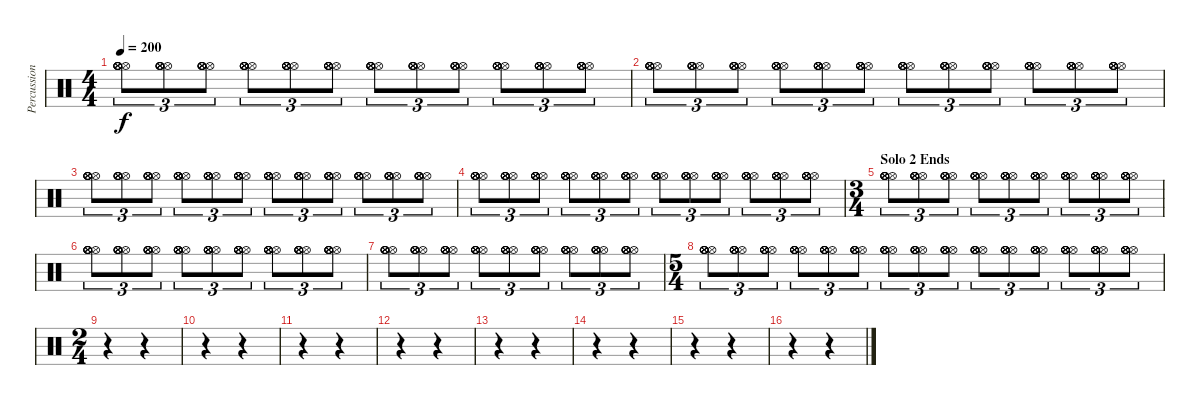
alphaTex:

\track ("Percussion" "Percussion") {instrument percussion}
\staff {score}
\articulation defaults
\ts (4 4)
\tempo 200
\clef neutral
\ks c
("Hi-Hat (open)" "Hi-Hat (open)" "Hi-Hat (open)" "Hi-Hat (open)" "Hi-Hat (open)" "Hi-Hat (open)").8{tu (3 2) dy f} ("Hi-Hat (open)" "Hi-Hat (open)" "Hi-Hat (open)" "Hi-Hat (open)" "Hi-Hat (open)" "Hi-Hat (open)").8{tu (3 2)} ("Hi-Hat (open)" "Hi-Hat (open)" "Hi-Hat (open)" "Hi-Hat (open)" "Hi-Hat (open)" "Hi-Hat (open)").8{tu (3 2)} ("Hi-Hat (open)" "Hi-Hat (open)" "Hi-Hat (open)" "Hi-Hat (open)" "Hi-Hat (open)" "Hi-Hat (open)").8{tu (3 2)} ("Hi-Hat (open)" "Hi-Hat (open)" "Hi-Hat (open)" "Hi-Hat (open)" "Hi-Hat (open)" "Hi-Hat (open)").8{tu (3 2)} ("Hi-Hat (open)" "Hi-Hat (open)" "Hi-Hat (open)" "Hi-Hat (open)" "Hi-Hat (open)" "Hi-Hat (open)").8{tu (3 2)} ("Hi-Hat (open)" "Hi-Hat (open)" "Hi-Hat (open)" "Hi-Hat (open)" "Hi-Hat (open)" "Hi-Hat (open)").8{tu (3 2)} ("Hi-Hat (open)" "Hi-Hat (open)" "Hi-Hat (open)" "Hi-Hat (open)" "Hi-Hat (open)" "Hi-Hat (open)").8{tu (3 2)} ("Hi-Hat (open)" "Hi-Hat (open)" "Hi-Hat (open)" "Hi-Hat (open)" "Hi-Hat (open)" "Hi-Hat (open)").8{tu (3 2)} ("Hi-Hat (open)" "Hi-Hat (open)" "Hi-Hat (open)" "Hi-Hat (open)" "Hi-Hat (open)" "Hi-Hat (open)").8{tu (3 2)} ("Hi-Hat (open)" "Hi-Hat (open)" "Hi-Hat (open)" "Hi-Hat (open)" "Hi-Hat (open)" "Hi-Hat (open)").8{tu (3 2)} ("Hi-Hat (open)" "Hi-Hat (open)" "Hi-Hat (open)" "Hi-Hat (open)" "Hi-Hat (open)" "Hi-Hat (open)").8{tu (3 2)} |
("Hi-Hat (open)" "Hi-Hat (open)" "Hi-Hat (open)" "Hi-Hat (open)" "Hi-Hat (open)" "Hi-Hat (open)").8{tu (3 2)} ("Hi-Hat (open)" "Hi-Hat (open)" "Hi-Hat (open)" "Hi-Hat (open)" "Hi-Hat (open)" "Hi-Hat (open)").8{tu (3 2)} ("Hi-Hat (open)" "Hi-Hat (open)" "Hi-Hat (open)" "Hi-Hat (open)" "Hi-Hat (open)" "Hi-Hat (open)").8{tu (3 2)} ("Hi-Hat (open)" "Hi-Hat (open)" "Hi-Hat (open)" "Hi-Hat (open)" "Hi-Hat (open)" "Hi-Hat (open)").8{tu (3 2)} ("Hi-Hat (open)" "Hi-Hat (open)" "Hi-Hat (open)" "Hi-Hat (open)" "Hi-Hat (open)" "Hi-Hat (open)").8{tu (3 2)} ("Hi-Hat (open)" "Hi-Hat (open)" "Hi-Hat (open)" "Hi-Hat (open)" "Hi-Hat (open)" "Hi-Hat (open)").8{tu (3 2)} ("Hi-Hat (open)" "Hi-Hat (open)" "Hi-Hat (open)" "Hi-Hat (open)" "Hi-Hat (open)" "Hi-Hat (open)").8{tu (3 2)} ("Hi-Hat (open)" "Hi-Hat (open)" "Hi-Hat (open)" "Hi-Hat (open)" "Hi-Hat (open)" "Hi-Hat (open)").8{tu (3 2)} ("Hi-Hat (open)" "Hi-Hat (open)" "Hi-Hat (open)" "Hi-Hat (open)" "Hi-Hat (open)" "Hi-Hat (open)").8{tu (3 2)} ("Hi-Hat (open)" "Hi-Hat (open)" "Hi-Hat (open)" "Hi-Hat (open)" "Hi-Hat (open)" "Hi-Hat (open)").8{tu (3 2)} ("Hi-Hat (open)" "Hi-Hat (open)" "Hi-Hat (open)" "Hi-Hat (open)" "Hi-Hat (open)" "Hi-Hat (open)").8{tu (3 2)} ("Hi-Hat (open)" "Hi-Hat (open)" "Hi-Hat (open)" "Hi-Hat (open)" "Hi-Hat (open)" "Hi-Hat (open)").8{tu (3 2)} |
("Hi-Hat (open)" "Hi-Hat (open)" "Hi-Hat (open)" "Hi-Hat (open)" "Hi-Hat (open)" "Hi-Hat (open)").8{tu (3 2)} ("Hi-Hat (open)" "Hi-Hat (open)" "Hi-Hat (open)" "Hi-Hat (open)" "Hi-Hat (open)" "Hi-Hat (open)").8{tu (3 2)} ("Hi-Hat (open)" "Hi-Hat (open)" "Hi-Hat (open)" "Hi-Hat (open)" "Hi-Hat (open)" "Hi-Hat (open)").8{tu (3 2)} ("Hi-Hat (open)" "Hi-Hat (open)" "Hi-Hat (open)" "Hi-Hat (open)" "Hi-Hat (open)" "Hi-Hat (open)").8{tu (3 2)} ("Hi-Hat (open)" "Hi-Hat (open)" "Hi-Hat (open)" "Hi-Hat (open)" "Hi-Hat (open)" "Hi-Hat (open)").8{tu (3 2)} ("Hi-Hat (open)" "Hi-Hat (open)" "Hi-Hat (open)" "Hi-Hat (open)" "Hi-Hat (open)" "Hi-Hat (open)").8{tu (3 2)} ("Hi-Hat (open)" "Hi-Hat (open)" "Hi-Hat (open)" "Hi-Hat (open)" "Hi-Hat (open)" "Hi-Hat (open)").8{tu (3 2)} ("Hi-Hat (open)" "Hi-Hat (open)" "Hi-Hat (open)" "Hi-Hat (open)" "Hi-Hat (open)" "Hi-Hat (open)").8{tu (3 2)} ("Hi-Hat (open)" "Hi-Hat (open)" "Hi-Hat (open)" "Hi-Hat (open)" "Hi-Hat (open)" "Hi-Hat (open)").8{tu (3 2)} ("Hi-Hat (open)" "Hi-Hat (open)" "Hi-Hat (open)" "Hi-Hat (open)" "Hi-Hat (open)" "Hi-Hat (open)").8{tu (3 2)} ("Hi-Hat (open)" "Hi-Hat (open)" "Hi-Hat (open)" "Hi-Hat (open)" "Hi-Hat (open)" "Hi-Hat (open)").8{tu (3 2)} ("Hi-Hat (open)" "Hi-Hat (open)" "Hi-Hat (open)" "Hi-Hat (open)" "Hi-Hat (open)" "Hi-Hat (open)").8{tu (3 2)} |
("Hi-Hat (open)" "Hi-Hat (open)" "Hi-Hat (open)" "Hi-Hat (open)" "Hi-Hat (open)" "Hi-Hat (open)").8{tu (3 2)} ("Hi-Hat (open)" "Hi-Hat (open)" "Hi-Hat (open)" "Hi-Hat (open)" "Hi-Hat (open)" "Hi-Hat (open)").8{tu (3 2)} ("Hi-Hat (open)" "Hi-Hat (open)" "Hi-Hat (open)" "Hi-Hat (open)" "Hi-Hat (open)" "Hi-Hat (open)").8{tu (3 2)} ("Hi-Hat (open)" "Hi-Hat (open)" "Hi-Hat (open)" "Hi-Hat (open)" "Hi-Hat (open)" "Hi-Hat (open)").8{tu (3 2)} ("Hi-Hat (open)" "Hi-Hat (open)" "Hi-Hat (open)" "Hi-Hat (open)" "Hi-Hat (open)" "Hi-Hat (open)").8{tu (3 2)} ("Hi-Hat (open)" "Hi-Hat (open)" "Hi-Hat (open)" "Hi-Hat (open)" "Hi-Hat (open)" "Hi-Hat (open)").8{tu (3 2)} ("Hi-Hat (open)" "Hi-Hat (open)" "Hi-Hat (open)" "Hi-Hat (open)" "Hi-Hat (open)" "Hi-Hat (open)").8{tu (3 2)} ("Hi-Hat (open)" "Hi-Hat (open)" "Hi-Hat (open)" "Hi-Hat (open)" "Hi-Hat (open)" "Hi-Hat (open)").8{tu (3 2)} ("Hi-Hat (open)" "Hi-Hat (open)" "Hi-Hat (open)" "Hi-Hat (open)" "Hi-Hat (open)" "Hi-Hat (open)").8{tu (3 2)} ("Hi-Hat (open)" "Hi-Hat (open)" "Hi-Hat (open)" "Hi-Hat (open)" "Hi-Hat (open)" "Hi-Hat (open)").8{tu (3 2)} ("Hi-Hat (open)" "Hi-Hat (open)" "Hi-Hat (open)" "Hi-Hat (open)" "Hi-Hat (open)" "Hi-Hat (open)").8{tu (3 2)} ("Hi-Hat (open)" "Hi-Hat (open)" "Hi-Hat (open)" "Hi-Hat (open)" "Hi-Hat (open)" "Hi-Hat (open)").8{tu (3 2)} |
\ts (3 4)
\section ("" "Solo 2 Ends")
("Hi-Hat (open)" "Hi-Hat (open)" "Hi-Hat (open)" "Hi-Hat (open)" "Hi-Hat (open)" "Hi-Hat (open)").8{tu (3 2) volume 14} ("Hi-Hat (open)" "Hi-Hat (open)" "Hi-Hat (open)" "Hi-Hat (open)" "Hi-Hat (open)" "Hi-Hat (open)").8{tu (3 2)} ("Hi-Hat (open)" "Hi-Hat (open)" "Hi-Hat (open)" "Hi-Hat (open)" "Hi-Hat (open)" "Hi-Hat (open)").8{tu (3 2)} ("Hi-Hat (open)" "Hi-Hat (open)" "Hi-Hat (open)" "Hi-Hat (open)" "Hi-Hat (open)" "Hi-Hat (open)").8{tu (3 2)} ("Hi-Hat (open)" "Hi-Hat (open)" "Hi-Hat (open)" "Hi-Hat (open)" "Hi-Hat (open)" "Hi-Hat (open)").8{tu (3 2)} ("Hi-Hat (open)" "Hi-Hat (open)" "Hi-Hat (open)" "Hi-Hat (open)" "Hi-Hat (open)" "Hi-Hat (open)").8{tu (3 2)} ("Hi-Hat (open)" "Hi-Hat (open)" "Hi-Hat (open)" "Hi-Hat (open)" "Hi-Hat (open)" "Hi-Hat (open)").8{tu (3 2)} ("Hi-Hat (open)" "Hi-Hat (open)" "Hi-Hat (open)" "Hi-Hat (open)" "Hi-Hat (open)" "Hi-Hat (open)").8{tu (3 2)} ("Hi-Hat (open)" "Hi-Hat (open)" "Hi-Hat (open)" "Hi-Hat (open)" "Hi-Hat (open)" "Hi-Hat (open)").8{tu (3 2)} |
("Hi-Hat (open)" "Hi-Hat (open)" "Hi-Hat (open)" "Hi-Hat (open)" "Hi-Hat (open)" "Hi-Hat (open)").8{tu (3 2)} ("Hi-Hat (open)" "Hi-Hat (open)" "Hi-Hat (open)" "Hi-Hat (open)" "Hi-Hat (open)" "Hi-Hat (open)").8{tu (3 2)} ("Hi-Hat (open)" "Hi-Hat (open)" "Hi-Hat (open)" "Hi-Hat (open)" "Hi-Hat (open)" "Hi-Hat (open)").8{tu (3 2)} ("Hi-Hat (open)" "Hi-Hat (open)" "Hi-Hat (open)" "Hi-Hat (open)" "Hi-Hat (open)" "Hi-Hat (open)").8{tu (3 2)} ("Hi-Hat (open)" "Hi-Hat (open)" "Hi-Hat (open)" "Hi-Hat (open)" "Hi-Hat (open)" "Hi-Hat (open)").8{tu (3 2)} ("Hi-Hat (open)" "Hi-Hat (open)" "Hi-Hat (open)" "Hi-Hat (open)" "Hi-Hat (open)" "Hi-Hat (open)").8{tu (3 2)} ("Hi-Hat (open)" "Hi-Hat (open)" "Hi-Hat (open)" "Hi-Hat (open)" "Hi-Hat (open)" "Hi-Hat (open)").8{tu (3 2)} ("Hi-Hat (open)" "Hi-Hat (open)" "Hi-Hat (open)" "Hi-Hat (open)" "Hi-Hat (open)" "Hi-Hat (open)").8{tu (3 2)} ("Hi-Hat (open)" "Hi-Hat (open)" "Hi-Hat (open)" "Hi-Hat (open)" "Hi-Hat (open)" "Hi-Hat (open)").8{tu (3 2)} |
("Hi-Hat (open)" "Hi-Hat (open)" "Hi-Hat (open)" "Hi-Hat (open)" "Hi-Hat (open)" "Hi-Hat (open)").8{tu (3 2)} ("Hi-Hat (open)" "Hi-Hat (open)" "Hi-Hat (open)" "Hi-Hat (open)" "Hi-Hat (open)" "Hi-Hat (open)").8{tu (3 2)} ("Hi-Hat (open)" "Hi-Hat (open)" "Hi-Hat (open)" "Hi-Hat (open)" "Hi-Hat (open)" "Hi-Hat (open)").8{tu (3 2)} ("Hi-Hat (open)" "Hi-Hat (open)" "Hi-Hat (open)" "Hi-Hat (open)" "Hi-Hat (open)" "Hi-Hat (open)").8{tu (3 2)} ("Hi-Hat (open)" "Hi-Hat (open)" "Hi-Hat (open)" "Hi-Hat (open)" "Hi-Hat (open)" "Hi-Hat (open)").8{tu (3 2)} ("Hi-Hat (open)" "Hi-Hat (open)" "Hi-Hat (open)" "Hi-Hat (open)" "Hi-Hat (open)" "Hi-Hat (open)").8{tu (3 2)} ("Hi-Hat (open)" "Hi-Hat (open)" "Hi-Hat (open)" "Hi-Hat (open)" "Hi-Hat (open)" "Hi-Hat (open)").8{tu (3 2)} ("Hi-Hat (open)" "Hi-Hat (open)" "Hi-Hat (open)" "Hi-Hat (open)" "Hi-Hat (open)" "Hi-Hat (open)").8{tu (3 2)} ("Hi-Hat (open)" "Hi-Hat (open)" "Hi-Hat (open)" "Hi-Hat (open)" "Hi-Hat (open)" "Hi-Hat (open)").8{tu (3 2)} |
\ts (5 4)
("Hi-Hat (open)" "Hi-Hat (open)" "Hi-Hat (open)" "Hi-Hat (open)" "Hi-Hat (open)" "Hi-Hat (open)").8{tu (3 2)} ("Hi-Hat (open)" "Hi-Hat (open)" "Hi-Hat (open)" "Hi-Hat (open)" "Hi-Hat (open)" "Hi-Hat (open)").8{tu (3 2)} ("Hi-Hat (open)" "Hi-Hat (open)" "Hi-Hat (open)" "Hi-Hat (open)" "Hi-Hat (open)" "Hi-Hat (open)").8{tu (3 2)} ("Hi-Hat (open)" "Hi-Hat (open)" "Hi-Hat (open)" "Hi-Hat (open)" "Hi-Hat (open)" "Hi-Hat (open)").8{tu (3 2)} ("Hi-Hat (open)" "Hi-Hat (open)" "Hi-Hat (open)" "Hi-Hat (open)" "Hi-Hat (open)" "Hi-Hat (open)").8{tu (3 2)} ("Hi-Hat (open)" "Hi-Hat (open)" "Hi-Hat (open)" "Hi-Hat (open)" "Hi-Hat (open)" "Hi-Hat (open)").8{tu (3 2)} ("Hi-Hat (open)" "Hi-Hat (open)" "Hi-Hat (open)" "Hi-Hat (open)" "Hi-Hat (open)" "Hi-Hat (open)").8{tu (3 2)} ("Hi-Hat (open)" "Hi-Hat (open)" "Hi-Hat (open)" "Hi-Hat (open)" "Hi-Hat (open)" "Hi-Hat (open)").8{tu (3 2)} ("Hi-Hat (open)" "Hi-Hat (open)" "Hi-Hat (open)" "Hi-Hat (open)" "Hi-Hat (open)" "Hi-Hat (open)").8{tu (3 2)} ("Hi-Hat (open)" "Hi-Hat (open)" "Hi-Hat (open)" "Hi-Hat (open)" "Hi-Hat (open)" "Hi-Hat (open)").8{tu (3 2)} ("Hi-Hat (open)" "Hi-Hat (open)" "Hi-Hat (open)" "Hi-Hat (open)" "Hi-Hat (open)" "Hi-Hat (open)").8{tu (3 2)} ("Hi-Hat (open)" "Hi-Hat (open)" "Hi-Hat (open)" "Hi-Hat (open)" "Hi-Hat (open)" "Hi-Hat (open)").8{tu (3 2)} ("Hi-Hat (open)" "Hi-Hat (open)" "Hi-Hat (open)" "Hi-Hat (open)" "Hi-Hat (open)" "Hi-Hat (open)").8{tu (3 2)} ("Hi-Hat (open)" "Hi-Hat (open)" "Hi-Hat (open)" "Hi-Hat (open)" "Hi-Hat (open)" "Hi-Hat (open)").8{tu (3 2)} ("Hi-Hat (open)" "Hi-Hat (open)" "Hi-Hat (open)" "Hi-Hat (open)" "Hi-Hat (open)" "Hi-Hat (open)").8{tu (3 2)} |
\ts (2 4)
r.4 r.4 |
r.4 r.4 |
r.4 r.4 |
r.4 r.4 |
r.4 r.4 |
r.4 r.4 |
r.4 r.4 |
r.4 r.4
